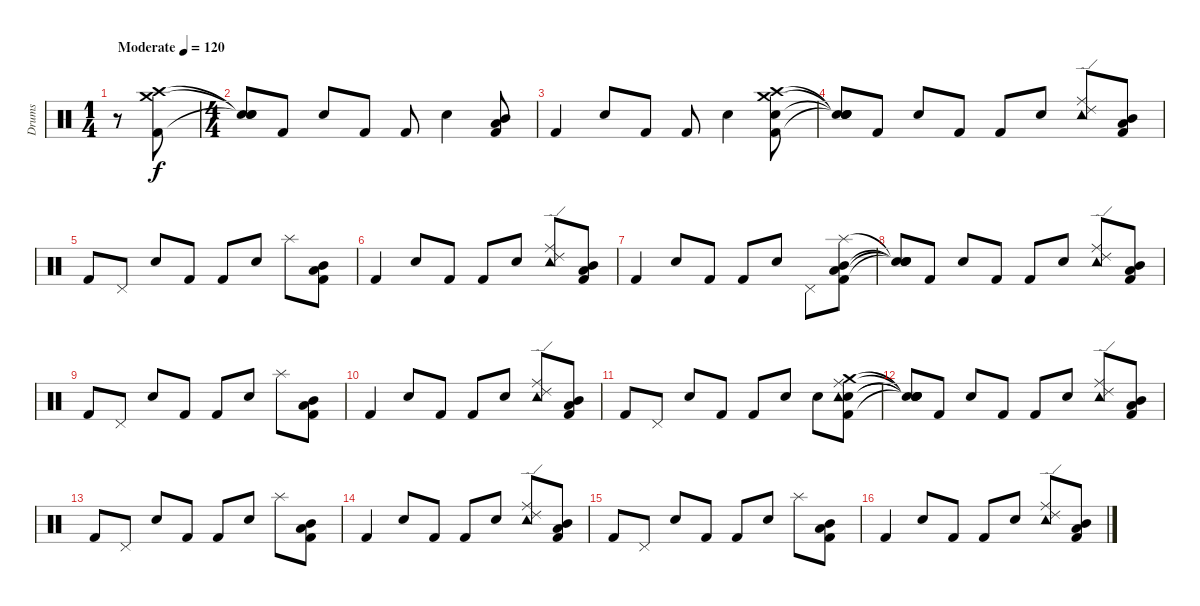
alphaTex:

\track ("Drums" "Drums") {instrument percussion}
\staff {score}
\articulation defaults
\ts (1 4)
\tempo (120 "Moderate")
\clef neutral
\ks c
r.8{dy f} ("Crash medium (hit)" "Crash high (hit)" "Kick (hit) 2").8 |
\ts (4 4)
("Snare (hit)"{t} "Snare (hit)"{t} "Snare (hit)"{t}).8 "Kick (hit) 2".8 "Snare (hit) 2".8 "Kick (hit) 2".8 "Kick (hit) 2".8 "Snare (hit) 2".4 ("Kick (hit) 2" "Mid Tom (hit)" "Low Tom (hit)").8 |
"Kick (hit) 2".4 "Snare (hit) 2".8 "Kick (hit) 2".8 "Kick (hit) 2".8 "Snare (hit) 2".4 ("Crash medium (hit)" "Crash high (hit)" "Snare (hit) 2" "Kick (hit) 2").8 |
("Snare (hit)"{t} "Snare (hit)"{t} "Snare (hit)"{t} "Snare (hit)"{t}).8 "Kick (hit) 2".8 "Snare (hit) 2".8 "Kick (hit) 2".8 "Kick (hit) 2".8 "Snare (hit) 2".8 ("Ride (edge) 2" "Ride (middle)" "Tambourine (hit)").8 ("Mid Tom (hit)" "Low Tom (hit)" "Kick (hit) 2").8 |
"Kick (hit) 2".8 "Pedal Hi-Hat (hit)".8 "Snare (hit) 2".8 "Kick (hit) 2".8 "Kick (hit) 2".8 "Snare (hit) 2".8 "Splash (hit)".8 ("Low Tom (hit)" "Mid Tom (hit)" "Kick (hit) 2").8 |
"Kick (hit) 2".4 "Snare (hit) 2".8 "Kick (hit) 2".8 "Kick (hit) 2".8 "Snare (hit) 2".8 ("Ride (edge) 2" "Tambourine (hit)" "Ride (middle)").8 ("Kick (hit) 2" "Low Tom (hit)" "Mid Tom (hit)").8 |
"Kick (hit) 2".4 "Snare (hit) 2".8 "Kick (hit) 2".8 "Kick (hit) 2".8 "Snare (hit) 2".8 "Pedal Hi-Hat (hit)".8 ("Splash (hit)" "Mid Tom (hit)" "Low Tom (hit)" "Kick (hit) 2").8 |
("Snare (hit)"{t} "Snare (hit)"{t} "Snare (hit)"{t} "Snare (hit)"{t}).8 "Kick (hit) 2".8 "Snare (hit) 2".8 "Kick (hit) 2".8 "Kick (hit) 2".8 "Snare (hit) 2".8 ("Ride (edge) 2" "Ride (middle)" "Tambourine (hit)").8 ("Low Tom (hit)" "Mid Tom (hit)" "Kick (hit) 2").8 |
"Kick (hit) 2".8 "Pedal Hi-Hat (hit)".8 "Snare (hit) 2".8 "Kick (hit) 2".8 "Kick (hit) 2".8 "Snare (hit) 2".8 "Splash (hit)".8 ("Kick (hit) 2" "Low Tom (hit)" "Mid Tom (hit)").8 |
"Kick (hit) 2".4 "Snare (hit) 2".8 "Kick (hit) 2".8 "Kick (hit) 2".8 "Snare (hit) 2".8 ("Ride (edge) 2" "Tambourine (hit)" "Ride (middle)").8 ("Low Tom (hit)" "Mid Tom (hit)" "Kick (hit) 2").8 |
"Kick (hit) 2".8 "Pedal Hi-Hat (hit)".8 "Snare (hit) 2".8 "Kick (hit) 2".8 "Kick (hit) 2".8 "Snare (hit) 2".8 "Snare (hit) 2".8 ("Ride (middle)" "Crash medium (hit)" "Snare (hit) 2" "Kick (hit) 2" "Tambourine (hit)").8 |
("Snare (hit)"{t} "Snare (hit)"{t} "Snare (hit)"{t} "Snare (hit)"{t} "Snare (hit)"{t}).8 "Kick (hit) 2".8 "Snare (hit) 2".8 "Kick (hit) 2".8 "Kick (hit) 2".8 "Snare (hit) 2".8 ("Ride (edge) 2" "Tambourine (hit)" "Ride (middle)").8 ("Low Tom (hit)" "Mid Tom (hit)" "Kick (hit) 2").8 |
"Kick (hit) 2".8 "Pedal Hi-Hat (hit)".8 "Snare (hit) 2".8 "Kick (hit) 2".8 "Kick (hit) 2".8 "Snare (hit) 2".8 "Splash (hit)".8 ("Low Tom (hit)" "Mid Tom (hit)" "Kick (hit) 2").8 |
"Kick (hit) 2".4 "Snare (hit) 2".8 "Kick (hit) 2".8 "Kick (hit) 2".8 "Snare (hit) 2".8 ("Ride (edge) 2" "Tambourine (hit)" "Ride (middle)").8 ("Mid Tom (hit)" "Low Tom (hit)" "Kick (hit) 2").8 |
"Kick (hit) 2".8 "Pedal Hi-Hat (hit)".8 "Snare (hit) 2".8 "Kick (hit) 2".8 "Kick (hit) 2".8 "Snare (hit) 2".8 "Splash (hit)".8 ("Low Tom (hit)" "Mid Tom (hit)" "Kick (hit) 2").8 |
"Kick (hit) 2".4 "Snare (hit) 2".8 "Kick (hit) 2".8 "Kick (hit) 2".8 "Snare (hit) 2".8 ("Ride (edge) 2" "Tambourine (hit)" "Ride (middle)").8 ("Mid Tom (hit)" "Low Tom (hit)" "Kick (hit) 2").8
